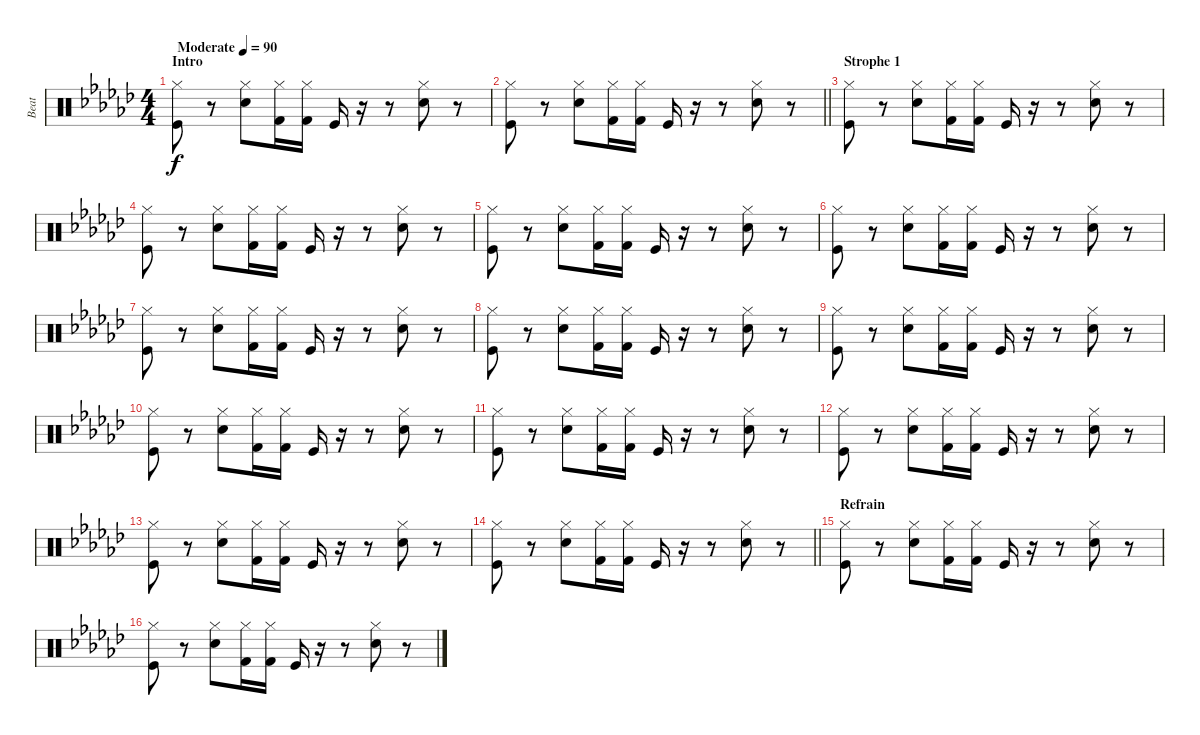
\track ("Beat" "Beat") {instrument percussion}
\staff {score}
\articulation defaults
\ts (4 4)
\section ("" "Intro")
\tempo (90 "Moderate")
\clef neutral
\ks ebminor
("Hi-Hat (closed)" "Kick (hit)").8{dy f} r.8 ("Hi-Hat (closed)" "Electric Snare (hit)").8 ("Hi-Hat (closed)" "Kick (hit) 2").16 ("Hi-Hat (closed)" "Kick (hit) 2").16 "Kick (hit)".16 r.16 r.8 ("Hi-Hat (closed)" "Electric Snare (hit)").8 r.8 |
\barLineRight lightlight
("Hi-Hat (closed)" "Kick (hit)").8 r.8 ("Hi-Hat (closed)" "Electric Snare (hit)").8 ("Hi-Hat (closed)" "Kick (hit) 2").16 ("Hi-Hat (closed)" "Kick (hit) 2").16 "Kick (hit)".16 r.16 r.8 ("Hi-Hat (closed)" "Electric Snare (hit)").8 r.8 |
\section ("" "Strophe 1")
("Hi-Hat (closed)" "Kick (hit)").8 r.8 ("Hi-Hat (closed)" "Electric Snare (hit)").8 ("Hi-Hat (closed)" "Kick (hit) 2").16 ("Hi-Hat (closed)" "Kick (hit) 2").16 "Kick (hit)".16 r.16 r.8 ("Hi-Hat (closed)" "Electric Snare (hit)").8 r.8 |
("Hi-Hat (closed)" "Kick (hit)").8 r.8 ("Hi-Hat (closed)" "Electric Snare (hit)").8 ("Hi-Hat (closed)" "Kick (hit) 2").16 ("Hi-Hat (closed)" "Kick (hit) 2").16 "Kick (hit)".16 r.16 r.8 ("Hi-Hat (closed)" "Electric Snare (hit)").8 r.8 |
("Hi-Hat (closed)" "Kick (hit)").8 r.8 ("Hi-Hat (closed)" "Electric Snare (hit)").8 ("Hi-Hat (closed)" "Kick (hit) 2").16 ("Hi-Hat (closed)" "Kick (hit) 2").16 "Kick (hit)".16 r.16 r.8 ("Hi-Hat (closed)" "Electric Snare (hit)").8 r.8 |
("Hi-Hat (closed)" "Kick (hit)").8 r.8 ("Hi-Hat (closed)" "Electric Snare (hit)").8 ("Hi-Hat (closed)" "Kick (hit) 2").16 ("Hi-Hat (closed)" "Kick (hit) 2").16 "Kick (hit)".16 r.16 r.8 ("Hi-Hat (closed)" "Electric Snare (hit)").8 r.8 |
("Hi-Hat (closed)" "Kick (hit)").8 r.8 ("Hi-Hat (closed)" "Electric Snare (hit)").8 ("Hi-Hat (closed)" "Kick (hit) 2").16 ("Hi-Hat (closed)" "Kick (hit) 2").16 "Kick (hit)".16 r.16 r.8 ("Hi-Hat (closed)" "Electric Snare (hit)").8 r.8 |
("Hi-Hat (closed)" "Kick (hit)").8 r.8 ("Hi-Hat (closed)" "Electric Snare (hit)").8 ("Hi-Hat (closed)" "Kick (hit) 2").16 ("Hi-Hat (closed)" "Kick (hit) 2").16 "Kick (hit)".16 r.16 r.8 ("Hi-Hat (closed)" "Electric Snare (hit)").8 r.8 |
("Hi-Hat (closed)" "Kick (hit)").8 r.8 ("Hi-Hat (closed)" "Electric Snare (hit)").8 ("Hi-Hat (closed)" "Kick (hit) 2").16 ("Hi-Hat (closed)" "Kick (hit) 2").16 "Kick (hit)".16 r.16 r.8 ("Hi-Hat (closed)" "Electric Snare (hit)").8 r.8 |
("Hi-Hat (closed)" "Kick (hit)").8 r.8 ("Hi-Hat (closed)" "Electric Snare (hit)").8 ("Hi-Hat (closed)" "Kick (hit) 2").16 ("Hi-Hat (closed)" "Kick (hit) 2").16 "Kick (hit)".16 r.16 r.8 ("Hi-Hat (closed)" "Electric Snare (hit)").8 r.8 |
("Hi-Hat (closed)" "Kick (hit)").8 r.8 ("Hi-Hat (closed)" "Electric Snare (hit)").8 ("Hi-Hat (closed)" "Kick (hit) 2").16 ("Hi-Hat (closed)" "Kick (hit) 2").16 "Kick (hit)".16 r.16 r.8 ("Hi-Hat (closed)" "Electric Snare (hit)").8 r.8 |
("Hi-Hat (closed)" "Kick (hit)").8 r.8 ("Hi-Hat (closed)" "Electric Snare (hit)").8 ("Hi-Hat (closed)" "Kick (hit) 2").16 ("Hi-Hat (closed)" "Kick (hit) 2").16 "Kick (hit)".16 r.16 r.8 ("Hi-Hat (closed)" "Electric Snare (hit)").8 r.8 |
("Hi-Hat (closed)" "Kick (hit)").8 r.8 ("Hi-Hat (closed)" "Electric Snare (hit)").8 ("Hi-Hat (closed)" "Kick (hit) 2").16 ("Hi-Hat (closed)" "Kick (hit) 2").16 "Kick (hit)".16 r.16 r.8 ("Hi-Hat (closed)" "Electric Snare (hit)").8 r.8 |
\barLineRight lightlight
("Hi-Hat (closed)" "Kick (hit)").8 r.8 ("Hi-Hat (closed)" "Electric Snare (hit)").8 ("Hi-Hat (closed)" "Kick (hit) 2").16 ("Hi-Hat (closed)" "Kick (hit) 2").16 "Kick (hit)".16 r.16 r.8 ("Hi-Hat (closed)" "Electric Snare (hit)").8 r.8 |
\section ("" "Refrain")
("Hi-Hat (closed)" "Kick (hit)").8 r.8 ("Hi-Hat (closed)" "Electric Snare (hit)").8 ("Hi-Hat (closed)" "Kick (hit) 2").16 ("Hi-Hat (closed)" "Kick (hit) 2").16 "Kick (hit)".16 r.16 r.8 ("Hi-Hat (closed)" "Electric Snare (hit)").8 r.8 |
("Hi-Hat (closed)" "Kick (hit)").8 r.8 ("Hi-Hat (closed)" "Electric Snare (hit)").8 ("Hi-Hat (closed)" "Kick (hit) 2").16 ("Hi-Hat (closed)" "Kick (hit) 2").16 "Kick (hit)".16 r.16 r.8 ("Hi-Hat (closed)" "Electric Snare (hit)").8 r.8
